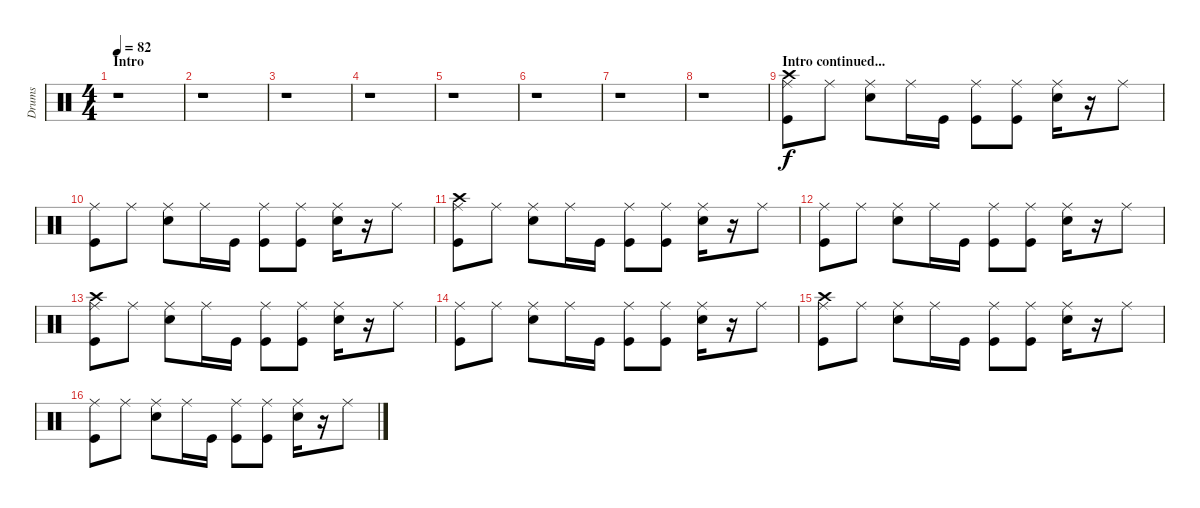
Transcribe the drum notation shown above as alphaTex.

\track ("Drums" "Drums") {instrument percussion}
\staff {score}
\articulation defaults
\ts (4 4)
\section ("" "Intro")
\tempo 82
\clef neutral
\ks c
r.1{dy f} |
r.1 |
r.1 |
r.1 |
r.1 |
r.1 |
r.1 |
r.1 |
\section ("" "Intro continued...")
("Kick (hit)" "Crash high (hit)" "Ride (middle)").8 "Ride (middle)".8 ("Electric Snare (hit)" "Ride (middle)").8 "Ride (middle)".16 "Kick (hit)".16 ("Kick (hit)" "Ride (middle)").8 ("Kick (hit)" "Ride (middle)").8 ("Electric Snare (hit)" "Ride (middle)").16 r.16 "Ride (middle)".8 |
("Kick (hit)" "Ride (middle)").8 "Ride (middle)".8 ("Electric Snare (hit)" "Ride (middle)").8 "Ride (middle)".16 "Kick (hit)".16 ("Kick (hit)" "Ride (middle)").8 ("Kick (hit)" "Ride (middle)").8 ("Electric Snare (hit)" "Ride (middle)").16 r.16 "Ride (middle)".8 |
("Kick (hit)" "Crash high (hit)" "Ride (middle)").8 "Ride (middle)".8 ("Electric Snare (hit)" "Ride (middle)").8 "Ride (middle)".16 "Kick (hit)".16 ("Kick (hit)" "Ride (middle)").8 ("Kick (hit)" "Ride (middle)").8 ("Electric Snare (hit)" "Ride (middle)").16 r.16 "Ride (middle)".8 |
("Kick (hit)" "Ride (middle)").8 "Ride (middle)".8 ("Electric Snare (hit)" "Ride (middle)").8 "Ride (middle)".16 "Kick (hit)".16 ("Kick (hit)" "Ride (middle)").8 ("Kick (hit)" "Ride (middle)").8 ("Electric Snare (hit)" "Ride (middle)").16 r.16 "Ride (middle)".8 |
("Kick (hit)" "Crash high (hit)" "Ride (middle)").8 "Ride (middle)".8 ("Electric Snare (hit)" "Ride (middle)").8 "Ride (middle)".16 "Kick (hit)".16 ("Kick (hit)" "Ride (middle)").8 ("Kick (hit)" "Ride (middle)").8 ("Electric Snare (hit)" "Ride (middle)").16 r.16 "Ride (middle)".8 |
("Kick (hit)" "Ride (middle)").8 "Ride (middle)".8 ("Electric Snare (hit)" "Ride (middle)").8 "Ride (middle)".16 "Kick (hit)".16 ("Kick (hit)" "Ride (middle)").8 ("Kick (hit)" "Ride (middle)").8 ("Electric Snare (hit)" "Ride (middle)").16 r.16 "Ride (middle)".8 |
("Kick (hit)" "Crash high (hit)" "Ride (middle)").8 "Ride (middle)".8 ("Electric Snare (hit)" "Ride (middle)").8 "Ride (middle)".16 "Kick (hit)".16 ("Kick (hit)" "Ride (middle)").8 ("Kick (hit)" "Ride (middle)").8 ("Electric Snare (hit)" "Ride (middle)").16 r.16 "Ride (middle)".8 |
("Kick (hit)" "Ride (middle)").8 "Ride (middle)".8 ("Electric Snare (hit)" "Ride (middle)").8 "Ride (middle)".16 "Kick (hit)".16 ("Kick (hit)" "Ride (middle)").8 ("Kick (hit)" "Ride (middle)").8 ("Electric Snare (hit)" "Ride (middle)").16 r.16 "Ride (middle)".8
